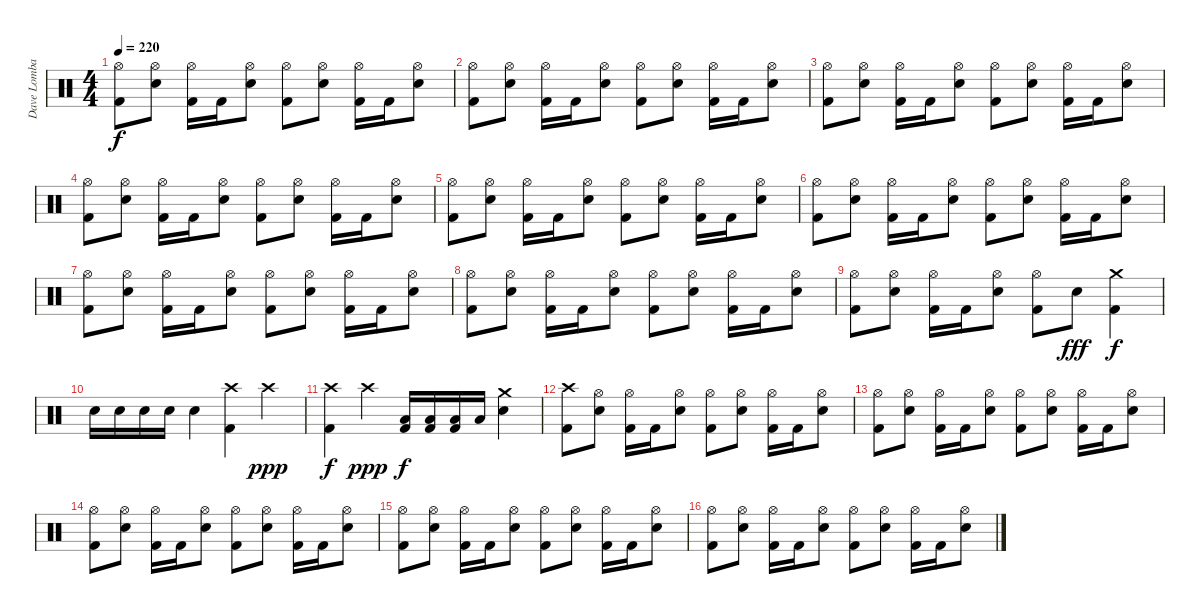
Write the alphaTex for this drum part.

\track ("Dave Lombardo" "Dave Lomba") {instrument percussion}
\staff {score}
\articulation defaults
\ts (4 4)
\tempo 220
\clef neutral
\ks c
("Hi-Hat (open)" "Kick (hit) 2").8{dy f} ("Hi-Hat (open)" "Electric Snare (hit)").8 ("Hi-Hat (open)" "Kick (hit) 2").16 "Kick (hit) 2".16 ("Hi-Hat (open)" "Electric Snare (hit)").8 ("Hi-Hat (open)" "Kick (hit) 2").8 ("Hi-Hat (open)" "Electric Snare (hit)").8 ("Hi-Hat (open)" "Kick (hit) 2").16 "Kick (hit) 2".16 ("Hi-Hat (open)" "Electric Snare (hit)").8 |
("Hi-Hat (open)" "Kick (hit) 2").8 ("Hi-Hat (open)" "Electric Snare (hit)").8 ("Hi-Hat (open)" "Kick (hit) 2").16 "Kick (hit) 2".16 ("Hi-Hat (open)" "Electric Snare (hit)").8 ("Hi-Hat (open)" "Kick (hit) 2").8 ("Hi-Hat (open)" "Electric Snare (hit)").8 ("Hi-Hat (open)" "Kick (hit) 2").16 "Kick (hit) 2".16 ("Hi-Hat (open)" "Electric Snare (hit)").8 |
("Hi-Hat (open)" "Kick (hit) 2").8 ("Hi-Hat (open)" "Electric Snare (hit)").8 ("Hi-Hat (open)" "Kick (hit) 2").16 "Kick (hit) 2".16 ("Hi-Hat (open)" "Electric Snare (hit)").8 ("Hi-Hat (open)" "Kick (hit) 2").8 ("Hi-Hat (open)" "Electric Snare (hit)").8 ("Hi-Hat (open)" "Kick (hit) 2").16 "Kick (hit) 2".16 ("Hi-Hat (open)" "Electric Snare (hit)").8 |
("Hi-Hat (open)" "Kick (hit) 2").8 ("Hi-Hat (open)" "Electric Snare (hit)").8 ("Hi-Hat (open)" "Kick (hit) 2").16 "Kick (hit) 2".16 ("Hi-Hat (open)" "Electric Snare (hit)").8 ("Hi-Hat (open)" "Kick (hit) 2").8 ("Hi-Hat (open)" "Electric Snare (hit)").8 ("Hi-Hat (open)" "Kick (hit) 2").16 "Kick (hit) 2".16 ("Hi-Hat (open)" "Electric Snare (hit)").8 |
("Hi-Hat (open)" "Kick (hit) 2").8 ("Hi-Hat (open)" "Electric Snare (hit)").8 ("Hi-Hat (open)" "Kick (hit) 2").16 "Kick (hit) 2".16 ("Hi-Hat (open)" "Electric Snare (hit)").8 ("Hi-Hat (open)" "Kick (hit) 2").8 ("Hi-Hat (open)" "Electric Snare (hit)").8 ("Hi-Hat (open)" "Kick (hit) 2").16 "Kick (hit) 2".16 ("Hi-Hat (open)" "Electric Snare (hit)").8 |
("Hi-Hat (open)" "Kick (hit) 2").8 ("Hi-Hat (open)" "Electric Snare (hit)").8 ("Hi-Hat (open)" "Kick (hit) 2").16 "Kick (hit) 2".16 ("Hi-Hat (open)" "Electric Snare (hit)").8 ("Hi-Hat (open)" "Kick (hit) 2").8 ("Hi-Hat (open)" "Electric Snare (hit)").8 ("Hi-Hat (open)" "Kick (hit) 2").16 "Kick (hit) 2".16 ("Hi-Hat (open)" "Electric Snare (hit)").8 |
("Hi-Hat (open)" "Kick (hit) 2").8 ("Hi-Hat (open)" "Electric Snare (hit)").8 ("Hi-Hat (open)" "Kick (hit) 2").16 "Kick (hit) 2".16 ("Hi-Hat (open)" "Electric Snare (hit)").8 ("Hi-Hat (open)" "Kick (hit) 2").8 ("Hi-Hat (open)" "Electric Snare (hit)").8 ("Hi-Hat (open)" "Kick (hit) 2").16 "Kick (hit) 2".16 ("Hi-Hat (open)" "Electric Snare (hit)").8 |
("Hi-Hat (open)" "Kick (hit) 2").8 ("Hi-Hat (open)" "Electric Snare (hit)").8 ("Hi-Hat (open)" "Kick (hit) 2").16 "Kick (hit) 2".16 ("Hi-Hat (open)" "Electric Snare (hit)").8 ("Hi-Hat (open)" "Kick (hit) 2").8 ("Hi-Hat (open)" "Electric Snare (hit)").8 ("Hi-Hat (open)" "Kick (hit) 2").16 "Kick (hit) 2".16 ("Hi-Hat (open)" "Electric Snare (hit)").8 |
("Hi-Hat (open)" "Kick (hit) 2").8 ("Hi-Hat (open)" "Electric Snare (hit)").8 ("Hi-Hat (open)" "Kick (hit) 2").16 "Kick (hit) 2".16 ("Hi-Hat (open)" "Electric Snare (hit)").8 ("Hi-Hat (open)" "Kick (hit) 2").8 "Electric Snare (hit)".8{dy fff} ("Crash medium (hit)" "Kick (hit) 2").4{dy f} |
"Electric Snare (hit)".16 "Electric Snare (hit)".16 "Electric Snare (hit)".16 "Electric Snare (hit)".16 "Electric Snare (hit)".4 ("Crash high (hit)" "Kick (hit) 2").4 "Crash high (hit)".4{dy ppp} |
("Crash high (hit)" "Kick (hit) 2").4{dy f} "Crash high (hit)".4{dy ppp} ("Kick (hit) 2" "Low Tom (hit)").16{dy f} ("Kick (hit) 2" "Low Tom (hit)").16 ("Kick (hit) 2" "Low Tom (hit)").16 "Low Tom (hit)".16 ("Crash medium (hit)" "Electric Snare (hit)").4 |
("Crash high (hit)" "Kick (hit) 2").8 ("Hi-Hat (open)" "Electric Snare (hit)").8 ("Hi-Hat (open)" "Kick (hit) 2").16 "Kick (hit) 2".16 ("Hi-Hat (open)" "Electric Snare (hit)").8 ("Hi-Hat (open)" "Kick (hit) 2").8 ("Hi-Hat (open)" "Electric Snare (hit)").8 ("Hi-Hat (open)" "Kick (hit) 2").16 "Kick (hit) 2".16 ("Hi-Hat (open)" "Electric Snare (hit)").8 |
("Hi-Hat (open)" "Kick (hit) 2").8 ("Hi-Hat (open)" "Electric Snare (hit)").8 ("Hi-Hat (open)" "Kick (hit) 2").16 "Kick (hit) 2".16 ("Hi-Hat (open)" "Electric Snare (hit)").8 ("Hi-Hat (open)" "Kick (hit) 2").8 ("Hi-Hat (open)" "Electric Snare (hit)").8 ("Hi-Hat (open)" "Kick (hit) 2").16 "Kick (hit) 2".16 ("Hi-Hat (open)" "Electric Snare (hit)").8 |
("Hi-Hat (open)" "Kick (hit) 2").8 ("Hi-Hat (open)" "Electric Snare (hit)").8 ("Hi-Hat (open)" "Kick (hit) 2").16 "Kick (hit) 2".16 ("Hi-Hat (open)" "Electric Snare (hit)").8 ("Hi-Hat (open)" "Kick (hit) 2").8 ("Hi-Hat (open)" "Electric Snare (hit)").8 ("Hi-Hat (open)" "Kick (hit) 2").16 "Kick (hit) 2".16 ("Hi-Hat (open)" "Electric Snare (hit)").8 |
("Hi-Hat (open)" "Kick (hit) 2").8 ("Hi-Hat (open)" "Electric Snare (hit)").8 ("Hi-Hat (open)" "Kick (hit) 2").16 "Kick (hit) 2".16 ("Hi-Hat (open)" "Electric Snare (hit)").8 ("Hi-Hat (open)" "Kick (hit) 2").8 ("Hi-Hat (open)" "Electric Snare (hit)").8 ("Hi-Hat (open)" "Kick (hit) 2").16 "Kick (hit) 2".16 ("Hi-Hat (open)" "Electric Snare (hit)").8 |
("Hi-Hat (open)" "Kick (hit) 2").8 ("Hi-Hat (open)" "Electric Snare (hit)").8 ("Hi-Hat (open)" "Kick (hit) 2").16 "Kick (hit) 2".16 ("Hi-Hat (open)" "Electric Snare (hit)").8 ("Hi-Hat (open)" "Kick (hit) 2").8 ("Hi-Hat (open)" "Electric Snare (hit)").8 ("Hi-Hat (open)" "Kick (hit) 2").16 "Kick (hit) 2".16 ("Hi-Hat (open)" "Electric Snare (hit)").8
